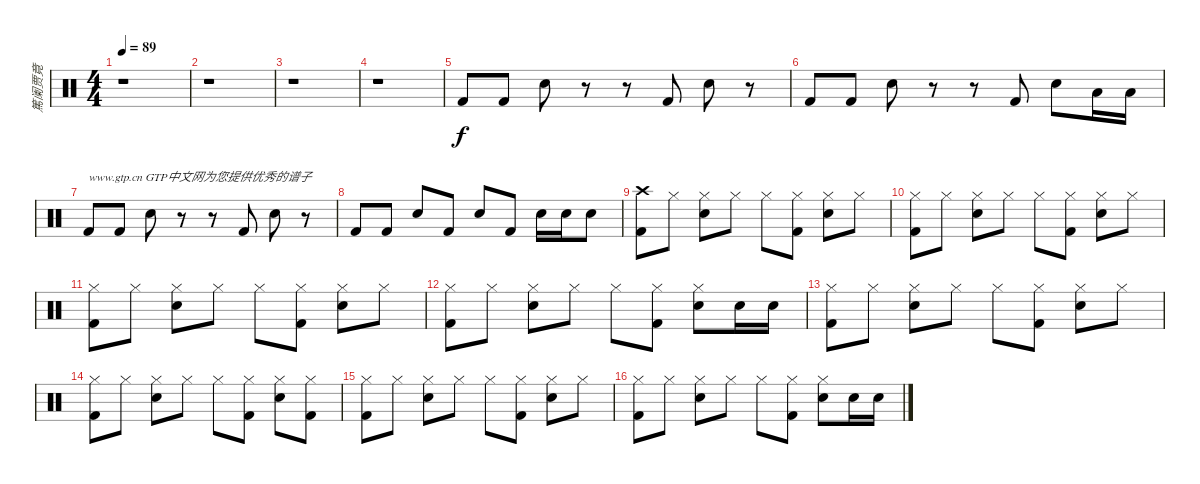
\track ("篤阑贾竟" "篤阑贾竟") {instrument percussion}
\staff {score}
\articulation defaults
\ts (4 4)
\tempo 89
\clef neutral
\ks c
r.1{dy f} |
r.1 |
r.1 |
r.1 |
"Kick (hit) 2".8 "Kick (hit) 2".8 "Snare (hit) 2".8 r.8 r.8 "Kick (hit) 2".8 "Snare (hit) 2".8 r.8 |
"Kick (hit) 2".8 "Kick (hit) 2".8 "Snare (hit) 2".8 r.8 r.8 "Kick (hit) 2".8 "Snare (hit) 2".8 "Low Tom (hit)".16 "Low Tom (hit)".16 |
"Kick (hit) 2".8{txt "www.gtp.cn GTP中文网为您提供优秀的谱子"} "Kick (hit) 2".8 "Snare (hit) 2".8 r.8 r.8 "Kick (hit) 2".8 "Snare (hit) 2".8 r.8 |
"Kick (hit) 2".8 "Kick (hit) 2".8 "Snare (hit) 2".8 "Kick (hit) 2".8 "Snare (hit) 2".8 "Kick (hit) 2".8 "Snare (hit) 2".16 "Snare (hit) 2".16 "Snare (hit) 2".8 |
("Crash high (hit)" "Kick (hit) 2").8 "Hi-Hat (closed)".8 ("Hi-Hat (closed)" "Snare (hit) 2").8 "Hi-Hat (closed)".8 "Hi-Hat (closed)".8 ("Hi-Hat (closed)" "Kick (hit) 2").8 ("Hi-Hat (closed)" "Snare (hit) 2").8 "Hi-Hat (closed)".8 |
("Hi-Hat (closed)" "Kick (hit) 2").8 "Hi-Hat (closed)".8 ("Hi-Hat (closed)" "Snare (hit) 2").8 "Hi-Hat (closed)".8 "Hi-Hat (closed)".8 ("Hi-Hat (closed)" "Kick (hit) 2").8 ("Hi-Hat (closed)" "Snare (hit) 2").8 "Hi-Hat (closed)".8 |
("Hi-Hat (closed)" "Kick (hit) 2").8 "Hi-Hat (closed)".8 ("Hi-Hat (closed)" "Snare (hit) 2").8 "Hi-Hat (closed)".8 "Hi-Hat (closed)".8 ("Hi-Hat (closed)" "Kick (hit) 2").8 ("Hi-Hat (closed)" "Snare (hit) 2").8 "Hi-Hat (closed)".8 |
("Hi-Hat (closed)" "Kick (hit) 2").8 "Hi-Hat (closed)".8 ("Hi-Hat (closed)" "Snare (hit) 2").8 "Hi-Hat (closed)".8 "Hi-Hat (closed)".8 ("Hi-Hat (closed)" "Kick (hit) 2").8 ("Hi-Hat (closed)" "Snare (hit) 2").8 "Snare (hit) 2".16 "Snare (hit) 2".16 |
("Hi-Hat (closed)" "Kick (hit) 2").8 "Hi-Hat (closed)".8 ("Hi-Hat (closed)" "Snare (hit) 2").8 "Hi-Hat (closed)".8 "Hi-Hat (closed)".8 ("Hi-Hat (closed)" "Kick (hit) 2").8 ("Hi-Hat (closed)" "Snare (hit) 2").8 "Hi-Hat (closed)".8 |
("Hi-Hat (closed)" "Kick (hit) 2").8 "Hi-Hat (closed)".8 ("Hi-Hat (closed)" "Snare (hit) 2").8 "Hi-Hat (closed)".8 "Hi-Hat (closed)".8 ("Hi-Hat (closed)" "Kick (hit) 2").8 ("Hi-Hat (closed)" "Snare (hit) 2").8 ("Hi-Hat (closed)" "Kick (hit) 2").8 |
("Hi-Hat (closed)" "Kick (hit) 2").8 "Hi-Hat (closed)".8 ("Hi-Hat (closed)" "Snare (hit) 2").8 "Hi-Hat (closed)".8 "Hi-Hat (closed)".8 ("Hi-Hat (closed)" "Kick (hit) 2").8 ("Hi-Hat (closed)" "Snare (hit) 2").8 "Hi-Hat (closed)".8 |
("Hi-Hat (closed)" "Kick (hit) 2").8 "Hi-Hat (closed)".8 ("Hi-Hat (closed)" "Snare (hit) 2").8 "Hi-Hat (closed)".8 "Hi-Hat (closed)".8 ("Hi-Hat (closed)" "Kick (hit) 2").8 ("Hi-Hat (closed)" "Snare (hit) 2").8 "Snare (hit) 2".16 "Snare (hit) 2".16
